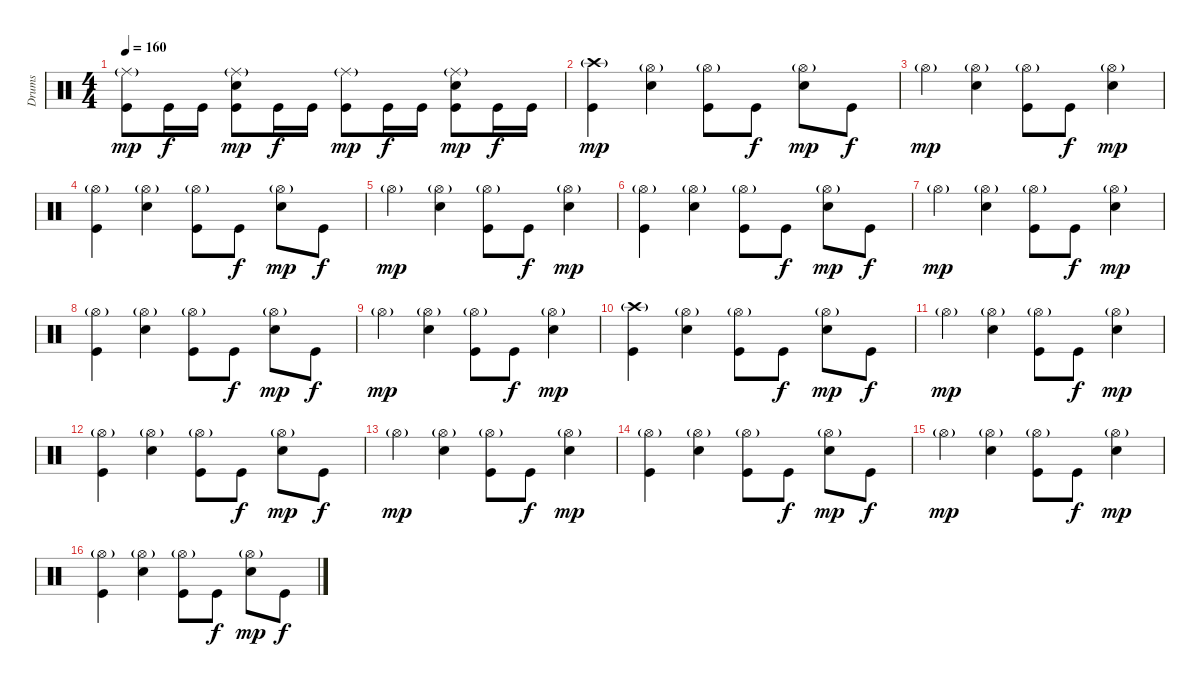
\track ("Drums" "Drums") {instrument percussion}
\staff {score}
\articulation defaults
\ts (4 4)
\tempo 160
\clef neutral
\ks c
("Ride (middle)"{g} "Kick (hit)").8{dy mp} "Kick (hit)".16{dy f} "Kick (hit)".16 ("Ride (middle)"{g} "Snare (hit) 2" "Kick (hit)").8{dy mp} "Kick (hit)".16{dy f} "Kick (hit)".16 ("Ride (middle)"{g} "Kick (hit)").8{dy mp} "Kick (hit)".16{dy f} "Kick (hit)".16 ("Ride (middle)"{g} "Snare (hit) 2" "Kick (hit)").8{dy mp} "Kick (hit)".16{dy f} "Kick (hit)".16 |
("Crash high (hit)"{g} "Kick (hit)").4{dy mp} ("Hi-Hat (open)"{g} "Snare (hit) 2").4 ("Hi-Hat (open)"{g} "Kick (hit)").8 "Kick (hit)".8{dy f} ("Hi-Hat (open)"{g} "Snare (hit) 2").8{dy mp} "Kick (hit)".8{dy f} |
"Hi-Hat (open)"{g}.4{dy mp} ("Hi-Hat (open)"{g} "Snare (hit) 2").4 ("Hi-Hat (open)"{g} "Kick (hit)").8 "Kick (hit)".8{dy f} ("Hi-Hat (open)"{g} "Snare (hit) 2").4{dy mp} |
("Hi-Hat (open)"{g} "Kick (hit)").4 ("Hi-Hat (open)"{g} "Snare (hit) 2").4 ("Hi-Hat (open)"{g} "Kick (hit)").8 "Kick (hit)".8{dy f} ("Hi-Hat (open)"{g} "Snare (hit) 2").8{dy mp} "Kick (hit)".8{dy f} |
"Hi-Hat (open)"{g}.4{dy mp} ("Hi-Hat (open)"{g} "Snare (hit) 2").4 ("Hi-Hat (open)"{g} "Kick (hit)").8 "Kick (hit)".8{dy f} ("Hi-Hat (open)"{g} "Snare (hit) 2").4{dy mp} |
("Hi-Hat (open)"{g} "Kick (hit)").4 ("Hi-Hat (open)"{g} "Snare (hit) 2").4 ("Hi-Hat (open)"{g} "Kick (hit)").8 "Kick (hit)".8{dy f} ("Hi-Hat (open)"{g} "Snare (hit) 2").8{dy mp} "Kick (hit)".8{dy f} |
"Hi-Hat (open)"{g}.4{dy mp} ("Hi-Hat (open)"{g} "Snare (hit) 2").4 ("Hi-Hat (open)"{g} "Kick (hit)").8 "Kick (hit)".8{dy f} ("Hi-Hat (open)"{g} "Snare (hit) 2").4{dy mp} |
("Hi-Hat (open)"{g} "Kick (hit)").4 ("Hi-Hat (open)"{g} "Snare (hit) 2").4 ("Hi-Hat (open)"{g} "Kick (hit)").8 "Kick (hit)".8{dy f} ("Hi-Hat (open)"{g} "Snare (hit) 2").8{dy mp} "Kick (hit)".8{dy f} |
"Hi-Hat (open)"{g}.4{dy mp} ("Hi-Hat (open)"{g} "Snare (hit) 2").4 ("Hi-Hat (open)"{g} "Kick (hit)").8 "Kick (hit)".8{dy f} ("Hi-Hat (open)"{g} "Snare (hit) 2").4{dy mp} |
("Crash high (hit)"{g} "Kick (hit)").4 ("Hi-Hat (open)"{g} "Snare (hit) 2").4 ("Hi-Hat (open)"{g} "Kick (hit)").8 "Kick (hit)".8{dy f} ("Hi-Hat (open)"{g} "Snare (hit) 2").8{dy mp} "Kick (hit)".8{dy f} |
"Hi-Hat (open)"{g}.4{dy mp} ("Hi-Hat (open)"{g} "Snare (hit) 2").4 ("Hi-Hat (open)"{g} "Kick (hit)").8 "Kick (hit)".8{dy f} ("Hi-Hat (open)"{g} "Snare (hit) 2").4{dy mp} |
("Hi-Hat (open)"{g} "Kick (hit)").4 ("Hi-Hat (open)"{g} "Snare (hit) 2").4 ("Hi-Hat (open)"{g} "Kick (hit)").8 "Kick (hit)".8{dy f} ("Hi-Hat (open)"{g} "Snare (hit) 2").8{dy mp} "Kick (hit)".8{dy f} |
"Hi-Hat (open)"{g}.4{dy mp} ("Hi-Hat (open)"{g} "Snare (hit) 2").4 ("Hi-Hat (open)"{g} "Kick (hit)").8 "Kick (hit)".8{dy f} ("Hi-Hat (open)"{g} "Snare (hit) 2").4{dy mp} |
("Hi-Hat (open)"{g} "Kick (hit)").4 ("Hi-Hat (open)"{g} "Snare (hit) 2").4 ("Hi-Hat (open)"{g} "Kick (hit)").8 "Kick (hit)".8{dy f} ("Hi-Hat (open)"{g} "Snare (hit) 2").8{dy mp} "Kick (hit)".8{dy f} |
"Hi-Hat (open)"{g}.4{dy mp} ("Hi-Hat (open)"{g} "Snare (hit) 2").4 ("Hi-Hat (open)"{g} "Kick (hit)").8 "Kick (hit)".8{dy f} ("Hi-Hat (open)"{g} "Snare (hit) 2").4{dy mp} |
("Hi-Hat (open)"{g} "Kick (hit)").4 ("Hi-Hat (open)"{g} "Snare (hit) 2").4 ("Hi-Hat (open)"{g} "Kick (hit)").8 "Kick (hit)".8{dy f} ("Hi-Hat (open)"{g} "Snare (hit) 2").8{dy mp} "Kick (hit)".8{dy f}
